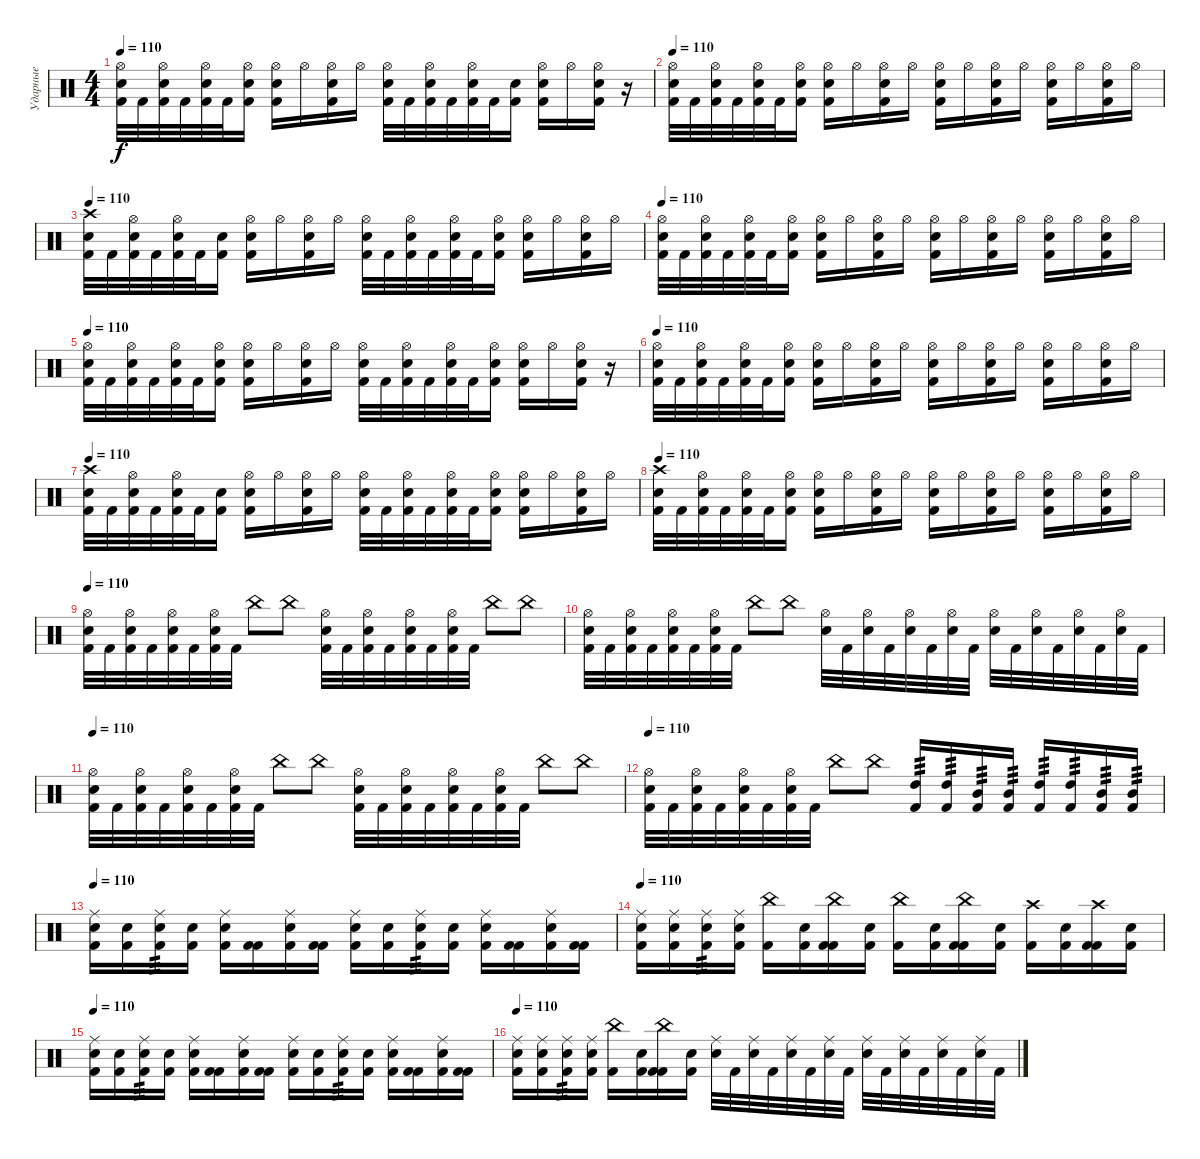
\track ("Ударные" "Ударные") {instrument percussion}
\staff {score}
\articulation defaults
\ts (4 4)
\tempo 110
\clef neutral
\ks c
("Hi-Hat (open)" "Snare (hit) 2" "Kick (hit) 2").32{dy f} "Kick (hit) 2".32 ("Hi-Hat (open)" "Snare (hit) 2" "Kick (hit) 2").32 "Kick (hit) 2".32 ("Hi-Hat (open)" "Snare (hit) 2" "Kick (hit) 2").32 "Kick (hit) 2".32 ("Hi-Hat (open)" "Snare (hit) 2" "Kick (hit) 2").16 ("Hi-Hat (open)" "Snare (hit) 2" "Kick (hit) 2").16 "Hi-Hat (open)".16 ("Hi-Hat (open)" "Snare (hit) 2" "Kick (hit) 2").16 "Hi-Hat (open)".16 ("Hi-Hat (open)" "Snare (hit) 2" "Kick (hit) 2").32 "Kick (hit) 2".32 ("Hi-Hat (open)" "Snare (hit) 2" "Kick (hit) 2").32 "Kick (hit) 2".32 ("Hi-Hat (open)" "Snare (hit) 2" "Kick (hit) 2").32 "Kick (hit) 2".32 ("Snare (hit) 2" "Kick (hit) 2").16 ("Hi-Hat (open)" "Snare (hit) 2" "Kick (hit) 2").16 "Hi-Hat (open)".16 ("Hi-Hat (open)" "Snare (hit) 2" "Kick (hit) 2").16 r.16 |
\tempo 110
("Hi-Hat (open)" "Snare (hit) 2" "Kick (hit) 2").32 "Kick (hit) 2".32 ("Hi-Hat (open)" "Snare (hit) 2" "Kick (hit) 2").32 "Kick (hit) 2".32 ("Hi-Hat (open)" "Snare (hit) 2" "Kick (hit) 2").32 "Kick (hit) 2".32 ("Hi-Hat (open)" "Snare (hit) 2" "Kick (hit) 2").16 ("Hi-Hat (open)" "Snare (hit) 2" "Kick (hit) 2").16 "Hi-Hat (open)".16 ("Hi-Hat (open)" "Snare (hit) 2" "Kick (hit) 2").16 "Hi-Hat (open)".16 ("Hi-Hat (open)" "Snare (hit) 2" "Kick (hit) 2").16 "Hi-Hat (open)".16 ("Hi-Hat (open)" "Snare (hit) 2" "Kick (hit) 2").16 "Hi-Hat (open)".16 ("Hi-Hat (open)" "Snare (hit) 2" "Kick (hit) 2").16 "Hi-Hat (open)".16 ("Hi-Hat (open)" "Snare (hit) 2" "Kick (hit) 2").16 "Hi-Hat (open)".16 |
\tempo 110
("Crash high (hit)" "Snare (hit) 2" "Kick (hit) 2").32 "Kick (hit) 2".32 ("Hi-Hat (open)" "Snare (hit) 2" "Kick (hit) 2").32 "Kick (hit) 2".32 ("Hi-Hat (open)" "Snare (hit) 2" "Kick (hit) 2").32 "Kick (hit) 2".32 ("Snare (hit) 2" "Kick (hit) 2").16 ("Hi-Hat (open)" "Snare (hit) 2" "Kick (hit) 2").16 "Hi-Hat (open)".16 ("Hi-Hat (open)" "Snare (hit) 2" "Kick (hit) 2").16 "Hi-Hat (open)".16 ("Hi-Hat (open)" "Snare (hit) 2" "Kick (hit) 2").32 "Kick (hit) 2".32 ("Hi-Hat (open)" "Snare (hit) 2" "Kick (hit) 2").32 "Kick (hit) 2".32 ("Hi-Hat (open)" "Snare (hit) 2" "Kick (hit) 2").32 "Kick (hit) 2".32 ("Hi-Hat (open)" "Snare (hit) 2" "Kick (hit) 2").16 ("Hi-Hat (open)" "Snare (hit) 2" "Kick (hit) 2").16 "Hi-Hat (open)".16 ("Hi-Hat (open)" "Snare (hit) 2" "Kick (hit) 2").16 "Hi-Hat (open)".16 |
\tempo 110
("Hi-Hat (open)" "Snare (hit) 2" "Kick (hit) 2").32 "Kick (hit) 2".32 ("Hi-Hat (open)" "Snare (hit) 2" "Kick (hit) 2").32 "Kick (hit) 2".32 ("Hi-Hat (open)" "Snare (hit) 2" "Kick (hit) 2").32 "Kick (hit) 2".32 ("Hi-Hat (open)" "Snare (hit) 2" "Kick (hit) 2").16 ("Hi-Hat (open)" "Snare (hit) 2" "Kick (hit) 2").16 "Hi-Hat (open)".16 ("Hi-Hat (open)" "Snare (hit) 2" "Kick (hit) 2").16 "Hi-Hat (open)".16 ("Hi-Hat (open)" "Snare (hit) 2" "Kick (hit) 2").16 "Hi-Hat (open)".16 ("Hi-Hat (open)" "Snare (hit) 2" "Kick (hit) 2").16 "Hi-Hat (open)".16 ("Hi-Hat (open)" "Snare (hit) 2" "Kick (hit) 2").16 "Hi-Hat (open)".16 ("Hi-Hat (open)" "Snare (hit) 2" "Kick (hit) 2").16 "Hi-Hat (open)".16 |
\tempo 110
("Hi-Hat (open)" "Snare (hit) 2" "Kick (hit) 2").32 "Kick (hit) 2".32 ("Hi-Hat (open)" "Snare (hit) 2" "Kick (hit) 2").32 "Kick (hit) 2".32 ("Hi-Hat (open)" "Snare (hit) 2" "Kick (hit) 2").32 "Kick (hit) 2".32 ("Hi-Hat (open)" "Snare (hit) 2" "Kick (hit) 2").16 ("Hi-Hat (open)" "Snare (hit) 2" "Kick (hit) 2").16 "Hi-Hat (open)".16 ("Hi-Hat (open)" "Snare (hit) 2" "Kick (hit) 2").16 "Hi-Hat (open)".16 ("Hi-Hat (open)" "Snare (hit) 2" "Kick (hit) 2").32 "Kick (hit) 2".32 ("Hi-Hat (open)" "Snare (hit) 2" "Kick (hit) 2").32 "Kick (hit) 2".32 ("Hi-Hat (open)" "Snare (hit) 2" "Kick (hit) 2").32 "Kick (hit) 2".32 ("Hi-Hat (open)" "Snare (hit) 2" "Kick (hit) 2").16 ("Hi-Hat (open)" "Snare (hit) 2" "Kick (hit) 2").16 "Hi-Hat (open)".16 ("Hi-Hat (open)" "Snare (hit) 2" "Kick (hit) 2").16 r.16 |
\tempo 110
("Hi-Hat (open)" "Snare (hit) 2" "Kick (hit) 2").32 "Kick (hit) 2".32 ("Hi-Hat (open)" "Snare (hit) 2" "Kick (hit) 2").32 "Kick (hit) 2".32 ("Hi-Hat (open)" "Snare (hit) 2" "Kick (hit) 2").32 "Kick (hit) 2".32 ("Hi-Hat (open)" "Snare (hit) 2" "Kick (hit) 2").16 ("Hi-Hat (open)" "Snare (hit) 2" "Kick (hit) 2").16 "Hi-Hat (open)".16 ("Hi-Hat (open)" "Snare (hit) 2" "Kick (hit) 2").16 "Hi-Hat (open)".16 ("Hi-Hat (open)" "Snare (hit) 2" "Kick (hit) 2").16 "Hi-Hat (open)".16 ("Hi-Hat (open)" "Snare (hit) 2" "Kick (hit) 2").16 "Hi-Hat (open)".16 ("Hi-Hat (open)" "Snare (hit) 2" "Kick (hit) 2").16 "Hi-Hat (open)".16 ("Hi-Hat (open)" "Snare (hit) 2" "Kick (hit) 2").16 "Hi-Hat (open)".16 |
\tempo 110
("Crash high (hit)" "Snare (hit) 2" "Kick (hit) 2").32 "Kick (hit) 2".32 ("Hi-Hat (open)" "Snare (hit) 2" "Kick (hit) 2").32 "Kick (hit) 2".32 ("Hi-Hat (open)" "Snare (hit) 2" "Kick (hit) 2").32 "Kick (hit) 2".32 ("Snare (hit) 2" "Kick (hit) 2").16 ("Hi-Hat (open)" "Snare (hit) 2" "Kick (hit) 2").16 "Hi-Hat (open)".16 ("Hi-Hat (open)" "Snare (hit) 2" "Kick (hit) 2").16 "Hi-Hat (open)".16 ("Hi-Hat (open)" "Snare (hit) 2" "Kick (hit) 2").32 "Kick (hit) 2".32 ("Hi-Hat (open)" "Snare (hit) 2" "Kick (hit) 2").32 "Kick (hit) 2".32 ("Hi-Hat (open)" "Snare (hit) 2" "Kick (hit) 2").32 "Kick (hit) 2".32 ("Hi-Hat (open)" "Snare (hit) 2" "Kick (hit) 2").16 ("Hi-Hat (open)" "Snare (hit) 2" "Kick (hit) 2").16 "Hi-Hat (open)".16 ("Hi-Hat (open)" "Snare (hit) 2" "Kick (hit) 2").16 "Hi-Hat (open)".16 |
\tempo 110
("Crash high (hit)" "Snare (hit) 2" "Kick (hit) 2").32 "Kick (hit) 2".32 ("Hi-Hat (open)" "Snare (hit) 2" "Kick (hit) 2").32 "Kick (hit) 2".32 ("Hi-Hat (open)" "Snare (hit) 2" "Kick (hit) 2").32 "Kick (hit) 2".32 ("Hi-Hat (open)" "Snare (hit) 2" "Kick (hit) 2").16 ("Hi-Hat (open)" "Snare (hit) 2" "Kick (hit) 2").16 "Hi-Hat (open)".16 ("Hi-Hat (open)" "Snare (hit) 2" "Kick (hit) 2").16 "Hi-Hat (open)".16 ("Hi-Hat (open)" "Snare (hit) 2" "Kick (hit) 2").16 "Hi-Hat (open)".16 ("Hi-Hat (open)" "Snare (hit) 2" "Kick (hit) 2").16 "Hi-Hat (open)".16 ("Hi-Hat (open)" "Snare (hit) 2" "Kick (hit) 2").16 "Hi-Hat (open)".16 ("Hi-Hat (open)" "Snare (hit) 2" "Kick (hit) 2").16 "Hi-Hat (open)".16 |
\tempo 110
("Hi-Hat (open)" "Snare (hit) 2" "Kick (hit) 2").32 "Kick (hit) 2".32 ("Hi-Hat (open)" "Snare (hit) 2" "Kick (hit) 2").32 "Kick (hit) 2".32 ("Hi-Hat (open)" "Snare (hit) 2" "Kick (hit) 2").32 "Kick (hit) 2".32 ("Hi-Hat (open)" "Snare (hit) 2" "Kick (hit) 2").32 "Kick (hit) 2".32 "China (hit)".8 "China (hit)".8 ("Hi-Hat (open)" "Snare (hit) 2" "Kick (hit) 2").32 "Kick (hit) 2".32 ("Hi-Hat (open)" "Snare (hit) 2" "Kick (hit) 2").32 "Kick (hit) 2".32 ("Hi-Hat (open)" "Snare (hit) 2" "Kick (hit) 2").32 "Kick (hit) 2".32 ("Hi-Hat (open)" "Snare (hit) 2" "Kick (hit) 2").32 "Kick (hit) 2".32 "China (hit)".8 "China (hit)".8 |
("Hi-Hat (open)" "Snare (hit) 2" "Kick (hit) 2").32 "Kick (hit) 2".32 ("Hi-Hat (open)" "Snare (hit) 2" "Kick (hit) 2").32 "Kick (hit) 2".32 ("Hi-Hat (open)" "Snare (hit) 2" "Kick (hit) 2").32 "Kick (hit) 2".32 ("Hi-Hat (open)" "Snare (hit) 2" "Kick (hit) 2").32 "Kick (hit) 2".32 "China (hit)".8 "China (hit)".8 ("Hi-Hat (open)" "Snare (hit) 2").32 "Kick (hit) 2".32 ("Hi-Hat (open)" "Snare (hit) 2").32 "Kick (hit) 2".32 ("Hi-Hat (open)" "Snare (hit) 2").32 "Kick (hit) 2".32 ("Hi-Hat (open)" "Snare (hit) 2").32 "Kick (hit) 2".32 ("Hi-Hat (open)" "Snare (hit) 2").32 "Kick (hit) 2".32 ("Hi-Hat (open)" "Snare (hit) 2").32 "Kick (hit) 2".32 ("Hi-Hat (open)" "Snare (hit) 2").32 "Kick (hit) 2".32 ("Hi-Hat (open)" "Snare (hit) 2").32 "Kick (hit) 2".32 |
\tempo 110
("Hi-Hat (open)" "Snare (hit) 2" "Kick (hit) 2").32 "Kick (hit) 2".32 ("Hi-Hat (open)" "Snare (hit) 2" "Kick (hit) 2").32 "Kick (hit) 2".32 ("Hi-Hat (open)" "Snare (hit) 2" "Kick (hit) 2").32 "Kick (hit) 2".32 ("Hi-Hat (open)" "Snare (hit) 2" "Kick (hit) 2").32 "Kick (hit) 2".32 "China (hit)".8 "China (hit)".8 ("Hi-Hat (open)" "Snare (hit) 2" "Kick (hit) 2").32 "Kick (hit) 2".32 ("Hi-Hat (open)" "Snare (hit) 2" "Kick (hit) 2").32 "Kick (hit) 2".32 ("Hi-Hat (open)" "Snare (hit) 2" "Kick (hit) 2").32 "Kick (hit) 2".32 ("Hi-Hat (open)" "Snare (hit) 2" "Kick (hit) 2").32 "Kick (hit) 2".32 "China (hit)".8 "China (hit)".8 |
\tempo 110
("Hi-Hat (open)" "Snare (hit) 2" "Kick (hit) 2").32 "Kick (hit) 2".32 ("Hi-Hat (open)" "Snare (hit) 2" "Kick (hit) 2").32 "Kick (hit) 2".32 ("Hi-Hat (open)" "Snare (hit) 2" "Kick (hit) 2").32 "Kick (hit) 2".32 ("Hi-Hat (open)" "Snare (hit) 2" "Kick (hit) 2").32 "Kick (hit) 2".32 "China (hit)".8 "China (hit)".8 ("High Tom (hit)" "Kick (hit) 2").16{tp 3} ("High Tom (hit)" "Kick (hit) 2").16{tp 3} ("Mid Tom (hit)" "Kick (hit) 2").16{tp 3} ("Mid Tom (hit)" "Kick (hit) 2").16{tp 3} ("High Tom (hit)" "Kick (hit) 2").16{tp 3} ("High Tom (hit)" "Kick (hit) 2").16{tp 3} ("Mid Tom (hit)" "Kick (hit) 2").16{tp 3} ("Mid Tom (hit)" "Kick (hit) 2").16{tp 3} |
\tempo 110
("Snare (hit) 2" "Kick (hit) 2" "Ride (middle)").16 ("Snare (hit) 2" "Kick (hit) 2").16 ("Snare (hit) 2" "Kick (hit) 2" "Ride (middle)").16{tp 3} ("Snare (hit) 2" "Kick (hit) 2").16 ("Kick (hit) 2" "Snare (hit) 2" "Ride (middle)").16 ("Kick (hit) 2" "Kick (hit) 2").16 ("Kick (hit) 2" "Snare (hit) 2" "Ride (middle)").16 ("Kick (hit) 2" "Kick (hit) 2").16 ("Snare (hit) 2" "Kick (hit) 2" "Ride (middle)").16 ("Snare (hit) 2" "Kick (hit) 2").16 ("Snare (hit) 2" "Kick (hit) 2" "Ride (middle)").16{tp 3} ("Snare (hit) 2" "Kick (hit) 2").16 ("Kick (hit) 2" "Snare (hit) 2" "Ride (middle)").16 ("Kick (hit) 2" "Kick (hit) 2").16 ("Kick (hit) 2" "Snare (hit) 2" "Ride (middle)").16 ("Kick (hit) 2" "Kick (hit) 2").16 |
\tempo 110
("Snare (hit) 2" "Kick (hit) 2" "Ride (middle)").16 ("Snare (hit) 2" "Kick (hit) 2" "Ride (middle)").16 ("Snare (hit) 2" "Kick (hit) 2" "Ride (middle)").16{tp 3} ("Snare (hit) 2" "Kick (hit) 2" "Ride (middle)").16 ("Kick (hit) 2" "China (hit)").16 ("Kick (hit) 2" "Snare (hit) 2").16 ("Kick (hit) 2" "Kick (hit) 2" "China (hit)").16 ("Kick (hit) 2" "Snare (hit) 2").16 ("Kick (hit) 2" "China (hit)").16 ("Kick (hit) 2" "Snare (hit) 2").16 ("Kick (hit) 2" "Kick (hit) 2" "China (hit)").16 ("Kick (hit) 2" "Snare (hit) 2").16 ("Kick (hit) 2" "Crash high (hit)").16 ("Kick (hit) 2" "Snare (hit) 2").16 ("Kick (hit) 2" "Kick (hit) 2" "Crash high (hit)").16 ("Kick (hit) 2" "Snare (hit) 2").16 |
\tempo 110
("Snare (hit) 2" "Kick (hit) 2" "Ride (middle)").16 ("Snare (hit) 2" "Kick (hit) 2").16 ("Snare (hit) 2" "Kick (hit) 2" "Ride (middle)").16{tp 3} ("Snare (hit) 2" "Kick (hit) 2").16 ("Kick (hit) 2" "Snare (hit) 2" "Ride (middle)").16 ("Kick (hit) 2" "Kick (hit) 2").16 ("Kick (hit) 2" "Snare (hit) 2" "Ride (middle)").16 ("Kick (hit) 2" "Kick (hit) 2").16 ("Snare (hit) 2" "Kick (hit) 2" "Ride (middle)").16 ("Snare (hit) 2" "Kick (hit) 2").16 ("Snare (hit) 2" "Kick (hit) 2" "Ride (middle)").16{tp 3} ("Snare (hit) 2" "Kick (hit) 2").16 ("Kick (hit) 2" "Snare (hit) 2" "Ride (middle)").16 ("Kick (hit) 2" "Kick (hit) 2").16 ("Kick (hit) 2" "Snare (hit) 2" "Ride (middle)").16 ("Kick (hit) 2" "Kick (hit) 2").16 |
\tempo 110
("Snare (hit) 2" "Kick (hit) 2" "Ride (middle)").16 ("Snare (hit) 2" "Kick (hit) 2" "Ride (middle)").16 ("Snare (hit) 2" "Kick (hit) 2" "Ride (middle)").16{tp 3} ("Snare (hit) 2" "Kick (hit) 2" "Ride (middle)").16 ("Kick (hit) 2" "China (hit)").16 ("Kick (hit) 2" "Snare (hit) 2").16 ("Kick (hit) 2" "Kick (hit) 2" "China (hit)").16 ("Kick (hit) 2" "Snare (hit) 2").16 ("Ride (middle)" "Snare (hit) 2").32 "Kick (hit) 2".32 ("Ride (middle)" "Snare (hit) 2").32 "Kick (hit) 2".32 ("Ride (middle)" "Snare (hit) 2").32 "Kick (hit) 2".32 ("Ride (middle)" "Snare (hit) 2").32 "Kick (hit) 2".32 ("Ride (middle)" "Snare (hit) 2").32 "Kick (hit) 2".32 ("Ride (middle)" "Snare (hit) 2").32 "Kick (hit) 2".32 ("Ride (middle)" "Snare (hit) 2").32 "Kick (hit) 2".32 ("Ride (middle)" "Snare (hit) 2").32 "Kick (hit) 2".32
